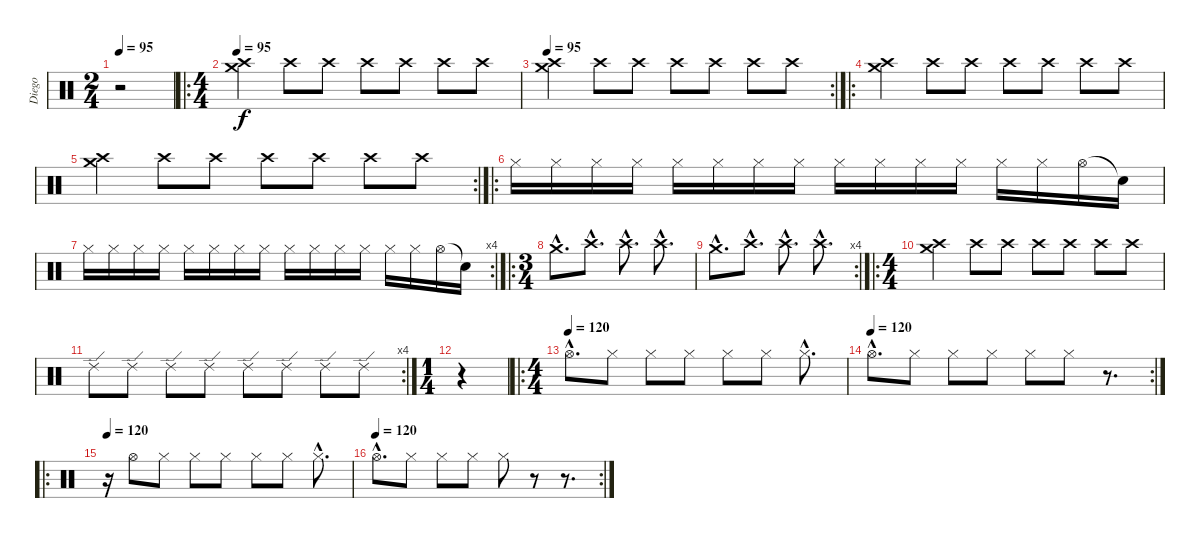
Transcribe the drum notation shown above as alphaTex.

\track ("Diego" "Diego") {instrument percussion}
\staff {score}
\articulation defaults
\ts (2 4)
\tempo 95
\clef neutral
\ks c
r.2{dy f} |
\ro
\ts (4 4)
\tempo 95
("Crash medium (hit)" "Crash high (hit)").4 "Crash high (hit)".8 "Crash high (hit)".8 "Crash high (hit)".8 "Crash high (hit)".8 "Crash high (hit)".8 "Crash high (hit)".8 |
\rc 2
\tempo 95
("Crash medium (hit)" "Crash high (hit)").4 "Crash high (hit)".8 "Crash high (hit)".8 "Crash high (hit)".8 "Crash high (hit)".8 "Crash high (hit)".8 "Crash high (hit)".8 |
\ro
("Crash medium (hit)" "Crash high (hit)").4 "Crash high (hit)".8 "Crash high (hit)".8 "Crash high (hit)".8 "Crash high (hit)".8 "Crash high (hit)".8 "Crash high (hit)".8 |
\rc 2
("Crash medium (hit)" "Crash high (hit)").4 "Crash high (hit)".8 "Crash high (hit)".8 "Crash high (hit)".8 "Crash high (hit)".8 "Crash high (hit)".8 "Crash high (hit)".8 |
\ro "Hi-Hat (closed)".16 "Hi-Hat (closed)".16 "Hi-Hat (closed)".16 "Hi-Hat (closed)".16 "Hi-Hat (closed)".16 "Hi-Hat (closed)".16 "Hi-Hat (closed)".16 "Hi-Hat (closed)".16 "Hi-Hat (closed)".16 "Hi-Hat (closed)".16 "Hi-Hat (closed)".16 "Hi-Hat (closed)".16 "Hi-Hat (closed)".16 "Hi-Hat (closed)".16 "Hi-Hat (open)".16 "Snare (hit)"{t}.16
|
\rc 4 "Hi-Hat (closed)".16 "Hi-Hat (closed)".16 "Hi-Hat (closed)".16 "Hi-Hat (closed)".16 "Hi-Hat (closed)".16 "Hi-Hat (closed)".16 "Hi-Hat (closed)".16 "Hi-Hat (closed)".16 "Hi-Hat (closed)".16 "Hi-Hat (closed)".16 "Hi-Hat (closed)".16 "Hi-Hat (closed)".16 "Hi-Hat (closed)".16 "Hi-Hat (closed)".16 "Hi-Hat (open)".16 "Snare (hit)"{t}.16
|
\ro
\ts (3 4)
"Crash medium (hit)"{hac}.8{d} "Crash high (hit)"{hac}.8{d} "Crash high (hit)"{hac}.8{d} "Crash high (hit)"{hac}.8{d} |
\rc 4 "Crash medium (hit)"{hac}.8{d} "Crash high (hit)"{hac}.8{d} "Crash high (hit)"{hac}.8{d} "Crash high (hit)"{hac}.8{d}
|
\ro
\ts (4 4)
("Crash medium (hit)" "Crash high (hit)").4 "Crash high (hit)".8 "Crash high (hit)".8 "Crash high (hit)".8 "Crash high (hit)".8 "Crash high (hit)".8 "Crash high (hit)".8 |
\rc 4 "Ride (edge) 2".8 "Ride (edge) 2".8 "Ride (edge) 2".8 "Ride (edge) 2".8 "Ride (edge) 2".8 "Ride (edge) 2".8 "Ride (edge) 2".8 "Ride (edge) 2".8
|
\ts (1 4)
r.4 |
\ro
\ts (4 4)
\tempo (120)
"Hi-Hat (open)"{hac}.8{d} "Hi-Hat (closed)".8 "Hi-Hat (closed)".8 "Hi-Hat (closed)".8 "Hi-Hat (closed)".8 "Hi-Hat (closed)".8 "Hi-Hat (closed)"{hac}.8{d} |
\rc 2
\tempo (120)
"Hi-Hat (open)"{hac}.8{d} "Hi-Hat (closed)".8 "Hi-Hat (closed)".8 "Hi-Hat (closed)".8 "Hi-Hat (closed)".8 "Hi-Hat (closed)".8 r.8{d} |
\ro
\tempo 120
r.16 "Hi-Hat (open)".8 "Hi-Hat (closed)".8 "Hi-Hat (closed)".8 "Hi-Hat (closed)".8 "Hi-Hat (closed)".8 "Hi-Hat (closed)".8 "Hi-Hat (closed)"{hac}.8{d} |
\rc 2
\tempo (120)
"Hi-Hat (open)"{hac}.8{d} "Hi-Hat (closed)".8 "Hi-Hat (closed)".8 "Hi-Hat (closed)".8 "Hi-Hat (closed)".8 r.8 r.8{d}
